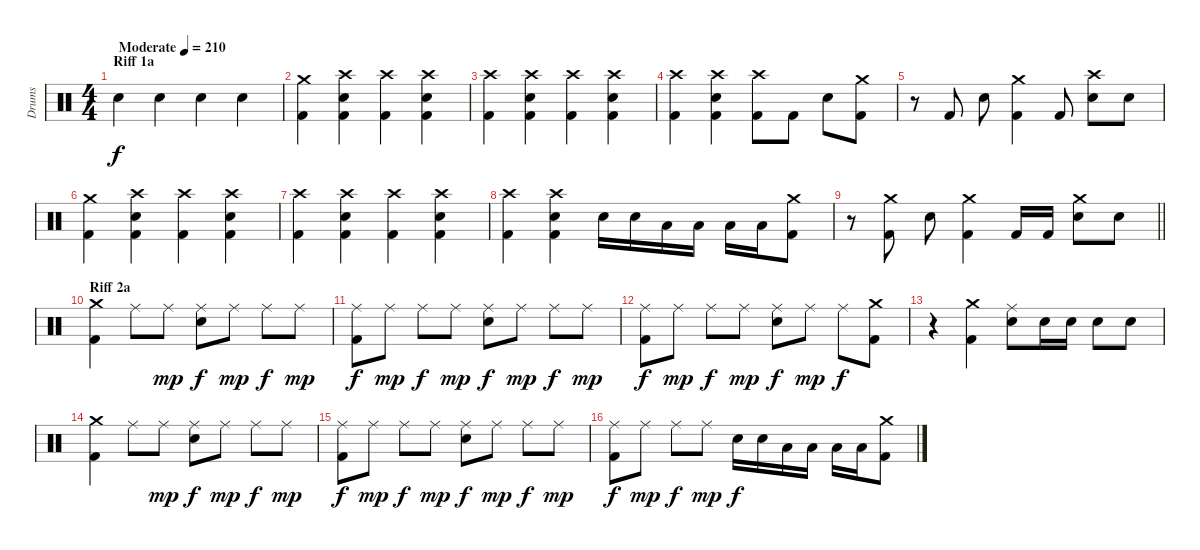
\track ("Drums" "Drums") {instrument percussion}
\staff {score}
\articulation defaults
\ts (4 4)
\section ("" "Riff 1a")
\tempo (210 "Moderate")
\clef neutral
\ks c "Electric Snare (hit)".4{dy f} "Electric Snare (hit)".4 "Electric Snare (hit)".4 "Electric Snare (hit)".4
|
("Crash medium (hit)" "Kick (hit) 2").4 ("Electric Snare (hit)" "Crash high (hit)" "Kick (hit) 2").4 ("Crash high (hit)" "Kick (hit) 2").4 ("Crash high (hit)" "Electric Snare (hit)" "Kick (hit) 2").4 |
("Crash high (hit)" "Kick (hit) 2").4 ("Crash high (hit)" "Electric Snare (hit)" "Kick (hit) 2").4 ("Crash high (hit)" "Kick (hit) 2").4 ("Crash high (hit)" "Electric Snare (hit)" "Kick (hit) 2").4 |
("Crash high (hit)" "Kick (hit) 2").4 ("Crash high (hit)" "Electric Snare (hit)" "Kick (hit) 2").4 ("Crash high (hit)" "Kick (hit) 2").8 "Kick (hit) 2".8 "Electric Snare (hit)".8 ("Crash medium (hit)" "Kick (hit) 2").8 |
r.8 "Kick (hit) 2".8 "Electric Snare (hit)".8 ("Kick (hit) 2" "Crash medium (hit)").4 "Kick (hit) 2".8 ("Electric Snare (hit)" "Crash high (hit)").8 "Electric Snare (hit)".8 |
("Crash medium (hit)" "Kick (hit) 2").4 ("Electric Snare (hit)" "Crash high (hit)" "Kick (hit) 2").4 ("Crash high (hit)" "Kick (hit) 2").4 ("Crash high (hit)" "Electric Snare (hit)" "Kick (hit) 2").4 |
("Crash high (hit)" "Kick (hit) 2").4 ("Crash high (hit)" "Electric Snare (hit)" "Kick (hit) 2").4 ("Crash high (hit)" "Kick (hit) 2").4 ("Crash high (hit)" "Electric Snare (hit)" "Kick (hit) 2").4 |
("Crash high (hit)" "Kick (hit) 2").4 ("Crash high (hit)" "Electric Snare (hit)" "Kick (hit) 2").4 "Electric Snare (hit)".16 "Electric Snare (hit)".16 "Low Tom (hit)".16 "Low Tom (hit)".16 "Low Floor Tom (hit)".16 "Low Floor Tom (hit)".16 ("Kick (hit) 2" "Crash medium (hit)").8 |
\barLineRight lightlight
r.8 ("Kick (hit) 2" "Crash medium (hit)").8 "Electric Snare (hit)".8 ("Kick (hit) 2" "Crash medium (hit)").4 "Kick (hit) 2".16 "Kick (hit) 2".16 ("Electric Snare (hit)" "Crash medium (hit)").8 "Electric Snare (hit)".8 |
\section ("" "Riff 2a")
("Crash medium (hit)" "Kick (hit) 2").4 "Ride (middle)".8 "Ride (middle)".8{dy mp} ("Electric Snare (hit)" "Ride (middle)").8{dy f} "Ride (middle)".8{dy mp} "Ride (middle)".8{dy f} "Ride (middle)".8{dy mp} |
("Kick (hit) 2" "Ride (middle)").8{dy f} "Ride (middle)".8{dy mp} "Ride (middle)".8{dy f} "Ride (middle)".8{dy mp} ("Electric Snare (hit)" "Ride (middle)").8{dy f} "Ride (middle)".8{dy mp} "Ride (middle)".8{dy f} "Ride (middle)".8{dy mp} |
("Kick (hit) 2" "Ride (middle)").8{dy f} "Ride (middle)".8{dy mp} "Ride (middle)".8{dy f} "Ride (middle)".8{dy mp} ("Electric Snare (hit)" "Ride (middle)").8{dy f} "Ride (middle)".8{dy mp} "Ride (middle)".8{dy f} ("Kick (hit) 2" "Crash medium (hit)").8 |
r.4 ("Kick (hit) 2" "Crash medium (hit)").4 ("Electric Snare (hit)" "Ride (middle)").8 "Electric Snare (hit)".16 "Electric Snare (hit)".16 "Electric Snare (hit)".8 "Electric Snare (hit)".8 |
("Crash medium (hit)" "Kick (hit) 2").4 "Ride (middle)".8 "Ride (middle)".8{dy mp} ("Electric Snare (hit)" "Ride (middle)").8{dy f} "Ride (middle)".8{dy mp} "Ride (middle)".8{dy f} "Ride (middle)".8{dy mp} |
("Kick (hit) 2" "Ride (middle)").8{dy f} "Ride (middle)".8{dy mp} "Ride (middle)".8{dy f} "Ride (middle)".8{dy mp} ("Electric Snare (hit)" "Ride (middle)").8{dy f} "Ride (middle)".8{dy mp} "Ride (middle)".8{dy f} "Ride (middle)".8{dy mp} |
("Kick (hit) 2" "Ride (middle)").8{dy f} "Ride (middle)".8{dy mp} "Ride (middle)".8{dy f} "Ride (middle)".8{dy mp} "Electric Snare (hit)".16{dy f} "Electric Snare (hit)".16 "Low Tom (hit)".16 "Low Tom (hit)".16 "Low Floor Tom (hit)".16 "Low Floor Tom (hit)".16 ("Kick (hit) 2" "Crash medium (hit)").8
